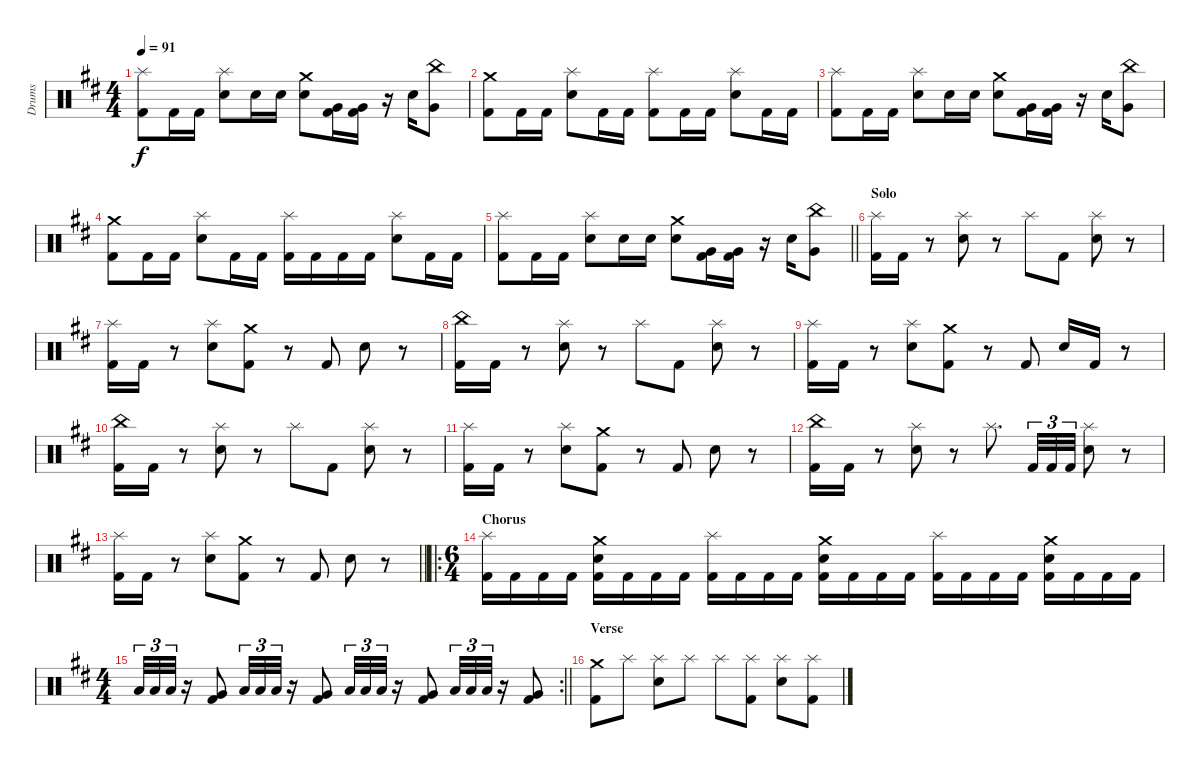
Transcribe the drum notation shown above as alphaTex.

\track ("Drums" "Drums") {instrument percussion}
\staff {score}
\articulation defaults
\ts (4 4)
\tempo 91
\clef neutral
\ks bminor
("Splash (hit)" "Kick (hit) 2").8{dy f} "Kick (hit) 2".16 "Kick (hit) 2".16 ("Splash (hit)" "Snare (hit) 2").8 "Snare (hit) 2".16 "Snare (hit) 2".16 ("Crash medium (hit)" "Snare (hit) 2").8 ("Very Low Tom (hit)" "Kick (hit) 2").16 ("Very Low Tom (hit)" "Kick (hit) 2").16 r.16 "Snare (hit) 2".16 ("China (hit)" "Very Low Tom (hit)").8 |
("Crash medium (hit)" "Kick (hit) 2").8 "Kick (hit) 2".16 "Kick (hit) 2".16 ("Splash (hit)" "Snare (hit) 2").8 "Kick (hit) 2".16 "Kick (hit) 2".16 ("Splash (hit)" "Kick (hit) 2").8 "Kick (hit) 2".16 "Kick (hit) 2".16 ("Splash (hit)" "Snare (hit) 2").8 "Kick (hit) 2".16 "Kick (hit) 2".16 |
("Splash (hit)" "Kick (hit) 2").8 "Kick (hit) 2".16 "Kick (hit) 2".16 ("Splash (hit)" "Snare (hit) 2").8 "Snare (hit) 2".16 "Snare (hit) 2".16 ("Crash medium (hit)" "Snare (hit) 2").8 ("Very Low Tom (hit)" "Kick (hit) 2").16 ("Very Low Tom (hit)" "Kick (hit) 2").16 r.16 "Snare (hit) 2".16 ("China (hit)" "Very Low Tom (hit)").8 |
("Crash medium (hit)" "Kick (hit) 2").8 "Kick (hit) 2".16 "Kick (hit) 2".16 ("Splash (hit)" "Snare (hit) 2").8 "Kick (hit) 2".16 "Kick (hit) 2".16 ("Splash (hit)" "Kick (hit) 2").16 "Kick (hit) 2".16 "Kick (hit) 2".16 "Kick (hit) 2".16 ("Splash (hit)" "Snare (hit) 2").8 "Kick (hit) 2".16 "Kick (hit) 2".16 |
\barLineRight lightlight
("Splash (hit)" "Kick (hit) 2").8 "Kick (hit) 2".16 "Kick (hit) 2".16 ("Splash (hit)" "Snare (hit) 2").8 "Snare (hit) 2".16 "Snare (hit) 2".16 ("Crash medium (hit)" "Snare (hit) 2").8 ("Very Low Tom (hit)" "Kick (hit) 2").16 ("Very Low Tom (hit)" "Kick (hit) 2").16 r.16 "Snare (hit) 2".16 ("China (hit)" "Very Low Tom (hit)").8 |
\section ("" "Solo")
("Splash (hit)" "Kick (hit) 2").16 "Kick (hit) 2".16 r.8 ("Splash (hit)" "Snare (hit) 2").8 r.8 "Splash (hit)".8 "Kick (hit) 2".8 ("Splash (hit)" "Snare (hit) 2").8 r.8 |
("Splash (hit)" "Kick (hit) 2").16 "Kick (hit) 2".16 r.8 ("Splash (hit)" "Snare (hit) 2").8 ("Crash medium (hit)" "Kick (hit) 2").8 r.8 "Kick (hit) 2".8 "Snare (hit) 2".8 r.8 |
("China (hit)" "Kick (hit) 2").16 "Kick (hit) 2".16 r.8 ("Splash (hit)" "Snare (hit) 2").8 r.8 "Splash (hit)".8 "Kick (hit) 2".8 ("Splash (hit)" "Snare (hit) 2").8 r.8 |
("Splash (hit)" "Kick (hit) 2").16 "Kick (hit) 2".16 r.8 ("Splash (hit)" "Snare (hit) 2").8 ("Crash medium (hit)" "Kick (hit) 2").8 r.8 "Kick (hit) 2".8 "Snare (hit) 2".16 "Kick (hit) 2".16 r.8 |
("China (hit)" "Kick (hit) 2").16 "Kick (hit) 2".16 r.8 ("Splash (hit)" "Snare (hit) 2").8 r.8 "Splash (hit)".8 "Kick (hit) 2".8 ("Splash (hit)" "Snare (hit) 2").8 r.8 |
("Splash (hit)" "Kick (hit) 2").16 "Kick (hit) 2".16 r.8 ("Splash (hit)" "Snare (hit) 2").8 ("Crash medium (hit)" "Kick (hit) 2").8 r.8 "Kick (hit) 2".8 "Snare (hit) 2".8 r.8 |
("China (hit)" "Kick (hit) 2").16 "Kick (hit) 2".16 r.8 ("Splash (hit)" "Snare (hit) 2").8 r.8 "Splash (hit)".8{d} "Kick (hit) 2".32{tu (3 2)} "Kick (hit) 2".32{tu (3 2)} "Kick (hit) 2".32{tu (3 2)} ("Splash (hit)" "Snare (hit) 2").8 r.8 |
\barLineRight lightlight
("Splash (hit)" "Kick (hit) 2").16 "Kick (hit) 2".16 r.8 ("Splash (hit)" "Snare (hit) 2").8 ("Crash medium (hit)" "Kick (hit) 2").8 r.8 "Kick (hit) 2".8 "Snare (hit) 2".8 r.8 |
\ro
\ts (6 4)
\section ("" "Chorus")
("Splash (hit)" "Kick (hit) 2").16 "Kick (hit) 2".16 "Kick (hit) 2".16 "Kick (hit) 2".16 ("Crash medium (hit)" "Snare (hit) 2" "Kick (hit) 2").16 "Kick (hit) 2".16 "Kick (hit) 2".16 "Kick (hit) 2".16 ("Splash (hit)" "Kick (hit) 2").16 "Kick (hit) 2".16 "Kick (hit) 2".16 "Kick (hit) 2".16 ("Crash medium (hit)" "Snare (hit) 2" "Kick (hit) 2").16 "Kick (hit) 2".16 "Kick (hit) 2".16 "Kick (hit) 2".16 ("Splash (hit)" "Kick (hit) 2").16 "Kick (hit) 2".16 "Kick (hit) 2".16 "Kick (hit) 2".16 ("Crash medium (hit)" "Snare (hit) 2" "Kick (hit) 2").16 "Kick (hit) 2".16 "Kick (hit) 2".16 "Kick (hit) 2".16 |
\rc 2
\ts (4 4)
\barLineRight lightlight "Low Tom (hit)".32{tu (3 2)} "Low Tom (hit)".32{tu (3 2)} "Low Tom (hit)".32{tu (3 2)}
r.16 ("Very Low Tom (hit)" "Kick (hit) 2").8 "Low Tom (hit)".32{tu (3 2)} "Low Tom (hit)".32{tu (3 2)} "Low Tom (hit)".32{tu (3 2)} r.16 ("Very Low Tom (hit)" "Kick (hit) 2").8 "Low Tom (hit)".32{tu (3 2)} "Low Tom (hit)".32{tu (3 2)} "Low Tom (hit)".32{tu (3 2)} r.16 ("Very Low Tom (hit)" "Kick (hit) 2").8 "Low Tom (hit)".32{tu (3 2)} "Low Tom (hit)".32{tu (3 2)} "Low Tom (hit)".32{tu (3 2)} r.16 ("Very Low Tom (hit)" "Kick (hit) 2").8 |
\section ("" "Verse")
("Crash medium (hit)" "Kick (hit) 2").8 "Splash (hit)".8 ("Splash (hit)" "Snare (hit) 2").8 "Splash (hit)".8 "Splash (hit)".8 ("Splash (hit)" "Kick (hit) 2").8 ("Splash (hit)" "Snare (hit) 2").8 ("Splash (hit)" "Kick (hit) 2").8
